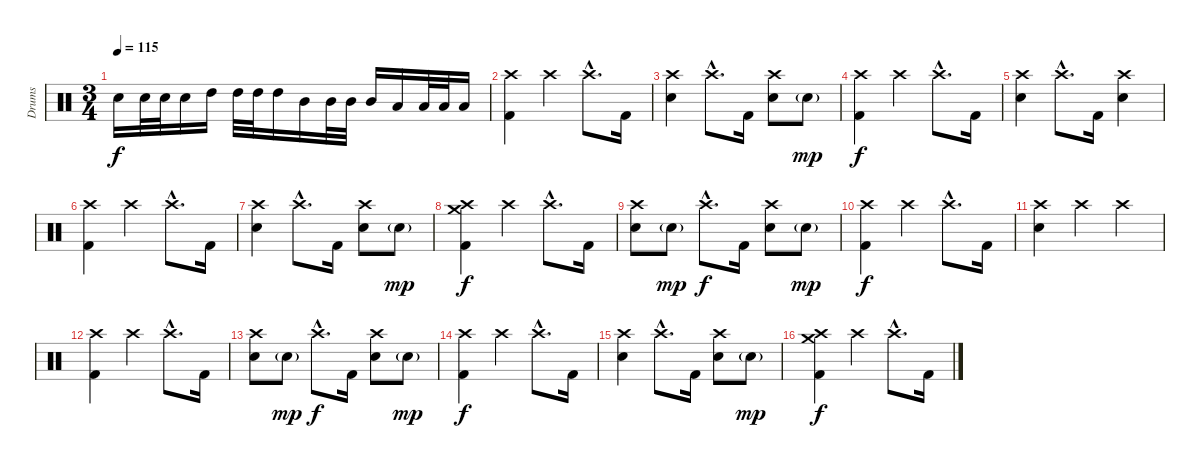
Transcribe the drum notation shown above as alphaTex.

\track ("Drums" "Drums") {instrument percussion}
\staff {score}
\articulation defaults
\ts (3 4)
\tempo 115
\clef neutral
\ks c "Electric Snare (hit)".16{dy f} "Electric Snare (hit)".32 "Electric Snare (hit)".32 "Electric Snare (hit)".16 "High Tom (hit)".16 "High Tom (hit)".32 "High Tom (hit)".32 "High Tom (hit)".16 "Mid Tom (hit)".16 "Mid Tom (hit)".32 "Mid Tom (hit)".32 "Mid Tom (hit)".16 "Low Tom (hit)".16 "Low Tom (hit)".32 "Low Tom (hit)".32 "Low Tom (hit)".16
|
\section ("" "")
("Crash high (hit)" "Kick (hit) 2").4 "Crash high (hit)".4 "Crash high (hit)"{hac}.8{d} "Kick (hit) 2".16 |
("Crash high (hit)" "Electric Snare (hit)").4 "Crash high (hit)"{hac}.8{d} "Kick (hit) 2".16 ("Crash high (hit)" "Electric Snare (hit)").8 "Electric Snare (hit)"{g}.8{dy mp} |
("Crash high (hit)" "Kick (hit) 2").4{dy f} "Crash high (hit)".4 "Crash high (hit)"{hac}.8{d} "Kick (hit) 2".16 |
("Crash high (hit)" "Electric Snare (hit)").4 "Crash high (hit)"{hac}.8{d} "Kick (hit) 2".16 ("Crash high (hit)" "Electric Snare (hit)").4 |
("Crash high (hit)" "Kick (hit) 2").4 "Crash high (hit)".4 "Crash high (hit)"{hac}.8{d} "Kick (hit) 2".16 |
("Crash high (hit)" "Electric Snare (hit)").4 "Crash high (hit)"{hac}.8{d} "Kick (hit) 2".16 ("Crash high (hit)" "Electric Snare (hit)").8 "Electric Snare (hit)"{g}.8{dy mp} |
("Crash high (hit)" "Crash medium (hit)" "Kick (hit) 2").4{dy f} "Crash high (hit)".4 "Crash high (hit)"{hac}.8{d} "Kick (hit) 2".16 |
("Crash high (hit)" "Electric Snare (hit)").8 "Electric Snare (hit)"{g}.8{dy mp} "Crash high (hit)"{hac}.8{d dy f} "Kick (hit) 2".16 ("Crash high (hit)" "Electric Snare (hit)").8 "Electric Snare (hit)"{g}.8{dy mp} |
("Crash high (hit)" "Kick (hit) 2").4{dy f} "Crash high (hit)".4 "Crash high (hit)"{hac}.8{d} "Kick (hit) 2".16 |
("Crash high (hit)" "Electric Snare (hit)").4 "Crash high (hit)".4 "Crash high (hit)".4 |
("Crash high (hit)" "Kick (hit) 2").4 "Crash high (hit)".4 "Crash high (hit)"{hac}.8{d} "Kick (hit) 2".16 |
("Crash high (hit)" "Electric Snare (hit)").8 "Electric Snare (hit)"{g}.8{dy mp} "Crash high (hit)"{hac}.8{d dy f} "Kick (hit) 2".16 ("Crash high (hit)" "Electric Snare (hit)").8 "Electric Snare (hit)"{g}.8{dy mp} |
("Crash high (hit)" "Kick (hit) 2").4{dy f} "Crash high (hit)".4 "Crash high (hit)"{hac}.8{d} "Kick (hit) 2".16 |
("Crash high (hit)" "Electric Snare (hit)").4 "Crash high (hit)"{hac}.8{d} "Kick (hit) 2".16 ("Crash high (hit)" "Electric Snare (hit)").8 "Electric Snare (hit)"{g}.8{dy mp} |
("Crash high (hit)" "Crash medium (hit)" "Kick (hit) 2").4{dy f} "Crash high (hit)".4 "Crash high (hit)"{hac}.8{d} "Kick (hit) 2".16
